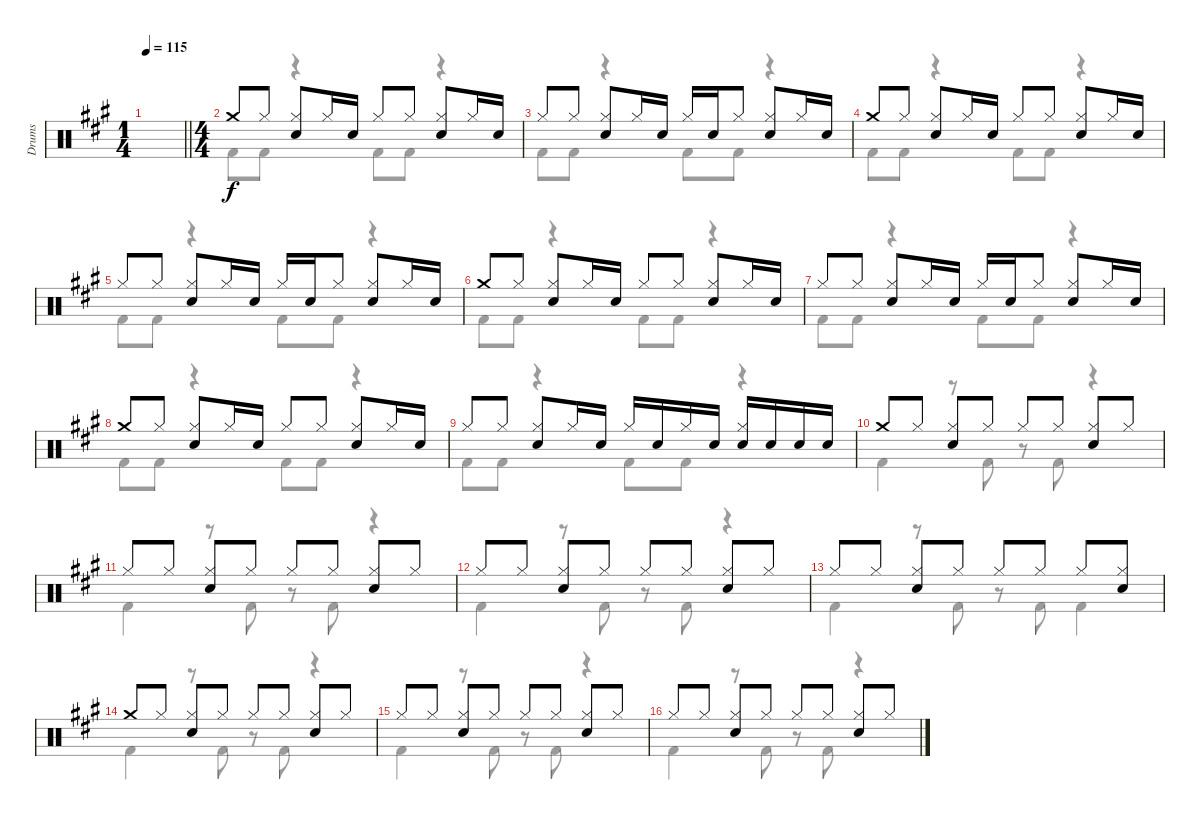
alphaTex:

\track ("Drums" "Drums") {instrument percussion}
\staff {score}
\articulation defaults
\voice
\ts (1 4)
\tempo 115
\clef neutral
\barLineRight lightlight
\ks a
|
\ts (4 4)
"Crash medium (hit)".8{beam Up} "Hi-Hat (closed)".8{beam Up} ("Hi-Hat (closed)" "Electric Snare (hit)").8{beam Up} "Hi-Hat (closed)".16{beam Up} "Electric Snare (hit)".16{beam Up} "Hi-Hat (closed)".8{beam Up} "Hi-Hat (closed)".8{beam Up} ("Hi-Hat (closed)" "Electric Snare (hit)").8{beam Up} "Hi-Hat (closed)".16{beam Up} "Electric Snare (hit)".16{beam Up} |
"Hi-Hat (closed)".8{beam Up} "Hi-Hat (closed)".8{beam Up} ("Hi-Hat (closed)" "Electric Snare (hit)").8{beam Up} "Hi-Hat (closed)".16{beam Up} "Electric Snare (hit)".16{beam Up} "Hi-Hat (closed)".16{beam Up} "Electric Snare (hit)".16{beam Up} "Hi-Hat (closed)".8{beam Up} ("Hi-Hat (closed)" "Electric Snare (hit)").8{beam Up} "Hi-Hat (closed)".16{beam Up} "Electric Snare (hit)".16{beam Up} |
"Crash medium (hit)".8{beam Up} "Hi-Hat (closed)".8{beam Up} ("Hi-Hat (closed)" "Electric Snare (hit)").8{beam Up} "Hi-Hat (closed)".16{beam Up} "Electric Snare (hit)".16{beam Up} "Hi-Hat (closed)".8{beam Up} "Hi-Hat (closed)".8{beam Up} ("Hi-Hat (closed)" "Electric Snare (hit)").8{beam Up} "Hi-Hat (closed)".16{beam Up} "Electric Snare (hit)".16{beam Up} |
"Hi-Hat (closed)".8{beam Up} "Hi-Hat (closed)".8{beam Up} ("Hi-Hat (closed)" "Electric Snare (hit)").8{beam Up} "Hi-Hat (closed)".16{beam Up} "Electric Snare (hit)".16{beam Up} "Hi-Hat (closed)".16{beam Up} "Electric Snare (hit)".16{beam Up} "Hi-Hat (closed)".8{beam Up} ("Hi-Hat (closed)" "Electric Snare (hit)").8{beam Up} "Hi-Hat (closed)".16{beam Up} "Electric Snare (hit)".16{beam Up} |
"Crash medium (hit)".8{beam Up} "Hi-Hat (closed)".8{beam Up} ("Hi-Hat (closed)" "Electric Snare (hit)").8{beam Up} "Hi-Hat (closed)".16{beam Up} "Electric Snare (hit)".16{beam Up} "Hi-Hat (closed)".8{beam Up} "Hi-Hat (closed)".8{beam Up} ("Hi-Hat (closed)" "Electric Snare (hit)").8{beam Up} "Hi-Hat (closed)".16{beam Up} "Electric Snare (hit)".16{beam Up} |
"Hi-Hat (closed)".8{beam Up} "Hi-Hat (closed)".8{beam Up} ("Hi-Hat (closed)" "Electric Snare (hit)").8{beam Up} "Hi-Hat (closed)".16{beam Up} "Electric Snare (hit)".16{beam Up} "Hi-Hat (closed)".16{beam Up} "Electric Snare (hit)".16{beam Up} "Hi-Hat (closed)".8{beam Up} ("Hi-Hat (closed)" "Electric Snare (hit)").8{beam Up} "Hi-Hat (closed)".16{beam Up} "Electric Snare (hit)".16{beam Up} |
"Crash medium (hit)".8{beam Up} "Hi-Hat (closed)".8{beam Up} ("Hi-Hat (closed)" "Electric Snare (hit)").8{beam Up} "Hi-Hat (closed)".16{beam Up} "Electric Snare (hit)".16{beam Up} "Hi-Hat (closed)".8{beam Up} "Hi-Hat (closed)".8{beam Up} ("Hi-Hat (closed)" "Electric Snare (hit)").8{beam Up} "Hi-Hat (closed)".16{beam Up} "Electric Snare (hit)".16{beam Up} |
"Hi-Hat (closed)".8{beam Up} "Hi-Hat (closed)".8{beam Up} ("Hi-Hat (closed)" "Electric Snare (hit)").8{beam Up} "Hi-Hat (closed)".16{beam Up} "Electric Snare (hit)".16{beam Up} "Hi-Hat (closed)".16{beam Up} "Electric Snare (hit)".16{beam Up} "Hi-Hat (closed)".16{beam Up} "Electric Snare (hit)".16{beam Up} ("Hi-Hat (closed)" "Electric Snare (hit)").16{beam Up} "Electric Snare (hit)".16{beam Up} "Electric Snare (hit)".16{beam Up} "Electric Snare (hit)".16{beam Up} |
"Crash medium (hit)".8 "Hi-Hat (closed)".8 ("Hi-Hat (closed)" "Electric Snare (hit)").8 "Hi-Hat (closed)".8 "Hi-Hat (closed)".8 "Hi-Hat (closed)".8 ("Hi-Hat (closed)" "Electric Snare (hit)").8 "Hi-Hat (closed)".8 |
"Hi-Hat (closed)".8 "Hi-Hat (closed)".8 ("Hi-Hat (closed)" "Electric Snare (hit)").8 "Hi-Hat (closed)".8 "Hi-Hat (closed)".8 "Hi-Hat (closed)".8 ("Hi-Hat (closed)" "Electric Snare (hit)").8 "Hi-Hat (closed)".8 |
"Hi-Hat (closed)".8 "Hi-Hat (closed)".8 ("Hi-Hat (closed)" "Electric Snare (hit)").8 "Hi-Hat (closed)".8 "Hi-Hat (closed)".8 "Hi-Hat (closed)".8 ("Hi-Hat (closed)" "Electric Snare (hit)").8 "Hi-Hat (closed)".8 |
"Hi-Hat (closed)".8 "Hi-Hat (closed)".8 ("Hi-Hat (closed)" "Electric Snare (hit)").8 "Hi-Hat (closed)".8 "Hi-Hat (closed)".8 "Hi-Hat (closed)".8 "Hi-Hat (closed)".8 ("Hi-Hat (closed)" "Electric Snare (hit)").8 |
"Crash medium (hit)".8 "Hi-Hat (closed)".8 ("Hi-Hat (closed)" "Electric Snare (hit)").8 "Hi-Hat (closed)".8 "Hi-Hat (closed)".8 "Hi-Hat (closed)".8 ("Hi-Hat (closed)" "Electric Snare (hit)").8 "Hi-Hat (closed)".8 |
"Hi-Hat (closed)".8 "Hi-Hat (closed)".8 ("Hi-Hat (closed)" "Electric Snare (hit)").8 "Hi-Hat (closed)".8 "Hi-Hat (closed)".8 "Hi-Hat (closed)".8 ("Hi-Hat (closed)" "Electric Snare (hit)").8 "Hi-Hat (closed)".8 |
"Hi-Hat (closed)".8 "Hi-Hat (closed)".8 ("Hi-Hat (closed)" "Electric Snare (hit)").8 "Hi-Hat (closed)".8 "Hi-Hat (closed)".8 "Hi-Hat (closed)".8 ("Hi-Hat (closed)" "Electric Snare (hit)").8 "Hi-Hat (closed)".8
\voice
\clef neutral
\ottava regular
\simile none
\barLineRight lightlight
\ks a
|
"Kick (hit) 2".8 "Kick (hit) 2".8 r.4 "Kick (hit) 2".8 "Kick (hit) 2".8 r.4 |
"Kick (hit) 2".8 "Kick (hit) 2".8 r.4 "Kick (hit) 2".8 "Kick (hit) 2".8 r.4 |
"Kick (hit) 2".8 "Kick (hit) 2".8 r.4 "Kick (hit) 2".8 "Kick (hit) 2".8 r.4 |
"Kick (hit) 2".8 "Kick (hit) 2".8 r.4 "Kick (hit) 2".8 "Kick (hit) 2".8 r.4 |
"Kick (hit) 2".8 "Kick (hit) 2".8 r.4 "Kick (hit) 2".8 "Kick (hit) 2".8 r.4 |
"Kick (hit) 2".8 "Kick (hit) 2".8 r.4 "Kick (hit) 2".8 "Kick (hit) 2".8 r.4 |
"Kick (hit) 2".8 "Kick (hit) 2".8 r.4 "Kick (hit) 2".8 "Kick (hit) 2".8 r.4 |
"Kick (hit) 2".8 "Kick (hit) 2".8 r.4 "Kick (hit) 2".8 "Kick (hit) 2".8 r.4 |
"Kick (hit) 2".4 r.8 "Kick (hit) 2".8 r.8 "Kick (hit) 2".8 r.4 |
"Kick (hit) 2".4 r.8 "Kick (hit) 2".8 r.8 "Kick (hit) 2".8 r.4 |
"Kick (hit) 2".4 r.8 "Kick (hit) 2".8 r.8 "Kick (hit) 2".8 r.4 |
"Kick (hit) 2".4 r.8 "Kick (hit) 2".8 r.8 "Kick (hit) 2".8 "Kick (hit) 2".4 |
"Kick (hit) 2".4 r.8 "Kick (hit) 2".8 r.8 "Kick (hit) 2".8 r.4 |
"Kick (hit) 2".4 r.8 "Kick (hit) 2".8 r.8 "Kick (hit) 2".8 r.4 |
"Kick (hit) 2".4 r.8 "Kick (hit) 2".8 r.8 "Kick (hit) 2".8 r.4
